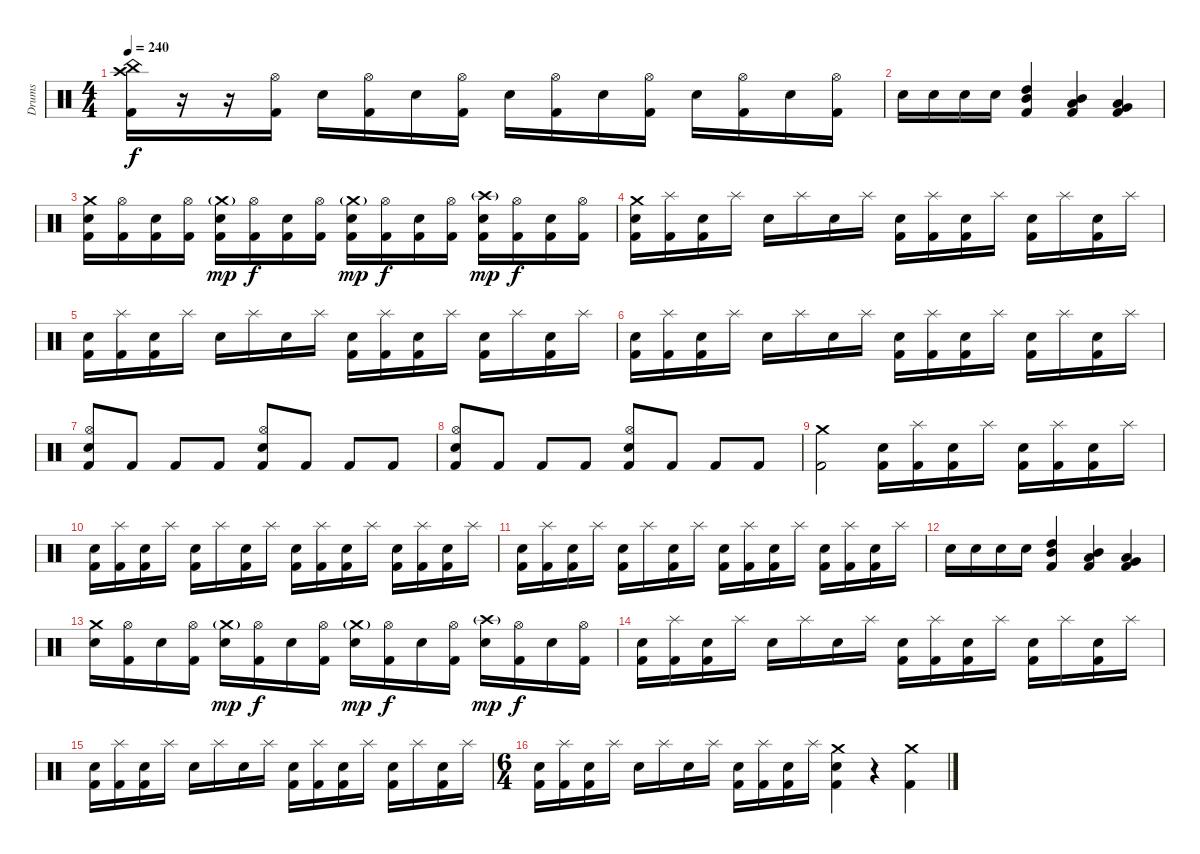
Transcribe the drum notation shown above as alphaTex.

\track ("Drums" "Drums") {instrument percussion}
\staff {score}
\articulation defaults
\ts (4 4)
\tempo 240
\clef neutral
\ks c
("Crash high (hit)" "China (hit)" "Kick (hit) 2").16{dy f} r.16 r.16 ("Hi-Hat (open)" "Kick (hit) 2").16 "Electric Snare (hit)".16 ("Hi-Hat (open)" "Kick (hit) 2").16 "Electric Snare (hit)".16 ("Hi-Hat (open)" "Kick (hit) 2").16 "Electric Snare (hit)".16 ("Hi-Hat (open)" "Kick (hit) 2").16 "Electric Snare (hit)".16 ("Hi-Hat (open)" "Kick (hit) 2").16 "Electric Snare (hit)".16 ("Hi-Hat (open)" "Kick (hit) 2").16 "Electric Snare (hit)".16 ("Hi-Hat (open)" "Kick (hit) 2").16 |
"Electric Snare (hit)".16 "Electric Snare (hit)".16 "Electric Snare (hit)".16 "Electric Snare (hit)".16 ("Mid Tom (hit)" "High Tom (hit)" "Kick (hit) 2").4 ("Low Tom (hit)" "Mid Tom (hit)" "Kick (hit) 2").4 ("Very Low Tom (hit)" "Low Tom (hit)" "Kick (hit) 2").4 |
("Crash medium (hit)" "Electric Snare (hit)" "Kick (hit) 2").16 ("Hi-Hat (open)" "Kick (hit) 2").16 ("Electric Snare (hit)" "Kick (hit) 2").16 ("Hi-Hat (open)" "Kick (hit) 2").16 ("Crash medium (hit)"{g} "Electric Snare (hit)" "Kick (hit) 2").16{dy mp} ("Hi-Hat (open)" "Kick (hit) 2").16{dy f} ("Electric Snare (hit)" "Kick (hit) 2").16 ("Hi-Hat (open)" "Kick (hit) 2").16 ("Crash medium (hit)"{g} "Electric Snare (hit)" "Kick (hit) 2").16{dy mp} ("Hi-Hat (open)" "Kick (hit) 2").16{dy f} ("Electric Snare (hit)" "Kick (hit) 2").16 ("Hi-Hat (open)" "Kick (hit) 2").16 ("Crash high (hit)"{g} "Electric Snare (hit)" "Kick (hit) 2").16{dy mp} ("Hi-Hat (open)" "Kick (hit) 2").16{dy f} ("Electric Snare (hit)" "Kick (hit) 2").16 ("Hi-Hat (open)" "Kick (hit) 2").16 |
("Crash medium (hit)" "Electric Snare (hit)" "Kick (hit) 2").16 ("Splash (hit)" "Kick (hit) 2").16 ("Electric Snare (hit)" "Kick (hit) 2").16 "Splash (hit)".16 "Electric Snare (hit)".16 "Splash (hit)".16 "Electric Snare (hit)".16 "Splash (hit)".16 ("Electric Snare (hit)" "Kick (hit) 2").16 ("Splash (hit)" "Kick (hit) 2").16 ("Electric Snare (hit)" "Kick (hit) 2").16 "Splash (hit)".16 ("Electric Snare (hit)" "Kick (hit) 2").16 "Splash (hit)".16 ("Electric Snare (hit)" "Kick (hit) 2").16 "Splash (hit)".16 |
("Electric Snare (hit)" "Kick (hit) 2").16 ("Splash (hit)" "Kick (hit) 2").16 ("Electric Snare (hit)" "Kick (hit) 2").16 "Splash (hit)".16 "Electric Snare (hit)".16 "Splash (hit)".16 "Electric Snare (hit)".16 "Splash (hit)".16 ("Electric Snare (hit)" "Kick (hit) 2").16 ("Splash (hit)" "Kick (hit) 2").16 ("Electric Snare (hit)" "Kick (hit) 2").16 "Splash (hit)".16 ("Electric Snare (hit)" "Kick (hit) 2").16 "Splash (hit)".16 ("Electric Snare (hit)" "Kick (hit) 2").16 "Splash (hit)".16 |
("Electric Snare (hit)" "Kick (hit) 2").16 ("Splash (hit)" "Kick (hit) 2").16 ("Electric Snare (hit)" "Kick (hit) 2").16 "Splash (hit)".16 "Electric Snare (hit)".16 "Splash (hit)".16 "Electric Snare (hit)".16 "Splash (hit)".16 ("Electric Snare (hit)" "Kick (hit) 2").16 ("Splash (hit)" "Kick (hit) 2").16 ("Electric Snare (hit)" "Kick (hit) 2").16 "Splash (hit)".16 ("Electric Snare (hit)" "Kick (hit) 2").16 "Splash (hit)".16 ("Electric Snare (hit)" "Kick (hit) 2").16 "Splash (hit)".16 |
("Hi-Hat (open)" "Electric Snare (hit)" "Kick (hit) 2").8 "Kick (hit) 2".8 "Kick (hit) 2".8 "Kick (hit) 2".8 ("Hi-Hat (open)" "Electric Snare (hit)" "Kick (hit) 2").8 "Kick (hit) 2".8 "Kick (hit) 2".8 "Kick (hit) 2".8 |
("Hi-Hat (open)" "Electric Snare (hit)" "Kick (hit) 2").8 "Kick (hit) 2".8 "Kick (hit) 2".8 "Kick (hit) 2".8 ("Hi-Hat (open)" "Electric Snare (hit)" "Kick (hit) 2").8 "Kick (hit) 2".8 "Kick (hit) 2".8 "Kick (hit) 2".8 |
("Crash medium (hit)" "Kick (hit) 2").2 ("Electric Snare (hit)" "Kick (hit) 2").16 ("Splash (hit)" "Kick (hit) 2").16 ("Electric Snare (hit)" "Kick (hit) 2").16 "Splash (hit)".16 ("Electric Snare (hit)" "Kick (hit) 2").16 ("Splash (hit)" "Kick (hit) 2").16 ("Electric Snare (hit)" "Kick (hit) 2").16 "Splash (hit)".16 |
("Electric Snare (hit)" "Kick (hit) 2").16 ("Splash (hit)" "Kick (hit) 2").16 ("Electric Snare (hit)" "Kick (hit) 2").16 "Splash (hit)".16 ("Electric Snare (hit)" "Kick (hit) 2").16 "Splash (hit)".16 ("Electric Snare (hit)" "Kick (hit) 2").16 "Splash (hit)".16 ("Electric Snare (hit)" "Kick (hit) 2").16 ("Splash (hit)" "Kick (hit) 2").16 ("Electric Snare (hit)" "Kick (hit) 2").16 "Splash (hit)".16 ("Electric Snare (hit)" "Kick (hit) 2").16 ("Splash (hit)" "Kick (hit) 2").16 ("Electric Snare (hit)" "Kick (hit) 2").16 "Splash (hit)".16 |
("Electric Snare (hit)" "Kick (hit) 2").16 ("Splash (hit)" "Kick (hit) 2").16 ("Electric Snare (hit)" "Kick (hit) 2").16 "Splash (hit)".16 ("Electric Snare (hit)" "Kick (hit) 2").16 "Splash (hit)".16 ("Electric Snare (hit)" "Kick (hit) 2").16 "Splash (hit)".16 ("Electric Snare (hit)" "Kick (hit) 2").16 ("Splash (hit)" "Kick (hit) 2").16 ("Electric Snare (hit)" "Kick (hit) 2").16 "Splash (hit)".16 ("Electric Snare (hit)" "Kick (hit) 2").16 ("Splash (hit)" "Kick (hit) 2").16 ("Electric Snare (hit)" "Kick (hit) 2").16 "Splash (hit)".16 |
"Electric Snare (hit)".16 "Electric Snare (hit)".16 "Electric Snare (hit)".16 "Electric Snare (hit)".16 ("Mid Tom (hit)" "High Tom (hit)" "Kick (hit) 2").4 ("Low Tom (hit)" "Mid Tom (hit)" "Kick (hit) 2").4 ("Very Low Tom (hit)" "Low Tom (hit)" "Kick (hit) 2").4 |
("Crash medium (hit)" "Electric Snare (hit)").16 ("Hi-Hat (open)" "Kick (hit) 2").16 "Electric Snare (hit)".16 ("Hi-Hat (open)" "Kick (hit) 2").16 ("Crash medium (hit)"{g} "Electric Snare (hit)").16{dy mp} ("Hi-Hat (open)" "Kick (hit) 2").16{dy f} "Electric Snare (hit)".16 ("Hi-Hat (open)" "Kick (hit) 2").16 ("Crash medium (hit)"{g} "Electric Snare (hit)").16{dy mp} ("Hi-Hat (open)" "Kick (hit) 2").16{dy f} "Electric Snare (hit)".16 ("Hi-Hat (open)" "Kick (hit) 2").16 ("Crash high (hit)"{g} "Electric Snare (hit)").16{dy mp} ("Hi-Hat (open)" "Kick (hit) 2").16{dy f} "Electric Snare (hit)".16 ("Hi-Hat (open)" "Kick (hit) 2").16 |
("Electric Snare (hit)" "Kick (hit) 2").16 ("Splash (hit)" "Kick (hit) 2").16 ("Electric Snare (hit)" "Kick (hit) 2").16 "Splash (hit)".16 "Electric Snare (hit)".16 "Splash (hit)".16 "Electric Snare (hit)".16 "Splash (hit)".16 ("Electric Snare (hit)" "Kick (hit) 2").16 ("Splash (hit)" "Kick (hit) 2").16 ("Electric Snare (hit)" "Kick (hit) 2").16 "Splash (hit)".16 ("Electric Snare (hit)" "Kick (hit) 2").16 "Splash (hit)".16 ("Electric Snare (hit)" "Kick (hit) 2").16 "Splash (hit)".16 |
("Electric Snare (hit)" "Kick (hit) 2").16 ("Splash (hit)" "Kick (hit) 2").16 ("Electric Snare (hit)" "Kick (hit) 2").16 "Splash (hit)".16 "Electric Snare (hit)".16 "Splash (hit)".16 "Electric Snare (hit)".16 "Splash (hit)".16 ("Electric Snare (hit)" "Kick (hit) 2").16 ("Splash (hit)" "Kick (hit) 2").16 ("Electric Snare (hit)" "Kick (hit) 2").16 "Splash (hit)".16 ("Electric Snare (hit)" "Kick (hit) 2").16 "Splash (hit)".16 ("Electric Snare (hit)" "Kick (hit) 2").16 "Splash (hit)".16 |
\ts (6 4)
("Electric Snare (hit)" "Kick (hit) 2").16 ("Splash (hit)" "Kick (hit) 2").16 ("Electric Snare (hit)" "Kick (hit) 2").16 "Splash (hit)".16 "Electric Snare (hit)".16 "Splash (hit)".16 "Electric Snare (hit)".16 "Splash (hit)".16 ("Electric Snare (hit)" "Kick (hit) 2").16 ("Splash (hit)" "Kick (hit) 2").16 ("Electric Snare (hit)" "Kick (hit) 2").16 "Splash (hit)".16 ("Crash medium (hit)" "Electric Snare (hit)" "Kick (hit) 2").4 r.4 ("Crash medium (hit)" "Kick (hit) 2").4
